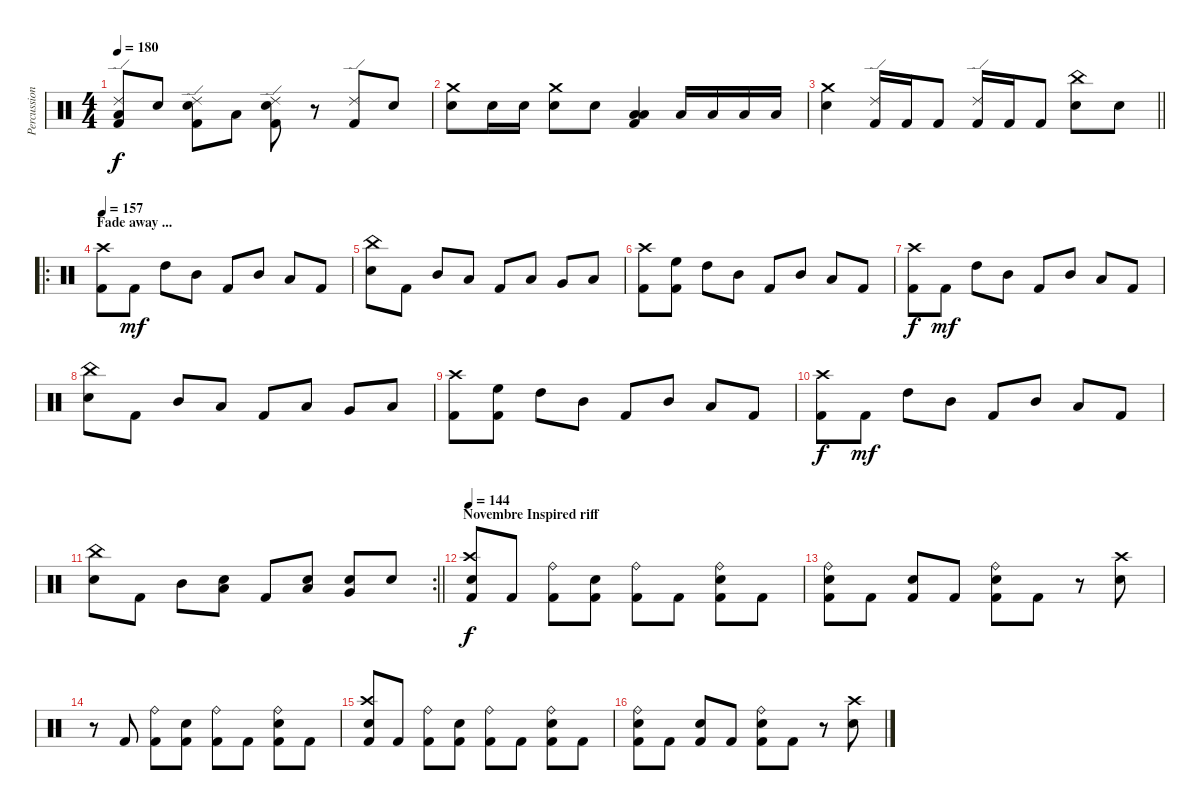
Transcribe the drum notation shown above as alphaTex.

\track ("Percussion" "Percussion") {instrument percussion}
\staff {score}
\articulation defaults
\ts (4 4)
\tempo 180
\clef neutral
\ks c
("Ride (edge) 2" "Low Floor Tom (hit)" "Kick (hit) 2").8{dy f} "Electric Snare (hit)".8 ("Ride (edge) 2" "Electric Snare (hit)" "Kick (hit) 2").8 "Low Floor Tom (hit)".8 ("Ride (edge) 2" "Electric Snare (hit)" "Kick (hit) 2").8 r.8 ("Ride (edge) 2" "Kick (hit) 2").8 "Electric Snare (hit)".8 |
("Crash medium (hit)" "Electric Snare (hit)").8 "Electric Snare (hit)".16 "Electric Snare (hit)".16 ("Crash medium (hit)" "Electric Snare (hit)").8 "Electric Snare (hit)".8 ("Low Tom (hit)" "Low Floor Tom (hit)" "Kick (hit) 2").4 "Low Tom (hit)".16 "Low Tom (hit)".16 "Low Floor Tom (hit)".16 "Low Floor Tom (hit)".16 |
\barLineRight lightlight
("Crash medium (hit)" "Electric Snare (hit)").4 ("Ride (edge) 2" "Kick (hit) 2").16 "Kick (hit) 2".16 "Kick (hit) 2".8 ("Ride (edge) 2" "Kick (hit) 2").16 "Kick (hit) 2".16 "Kick (hit) 2".8 ("China (hit)" "Electric Snare (hit)").8 "Electric Snare (hit)".8 |
\ro
\section ("" "Fade away ...")
\tempo 157
("Kick (hit) 2" "Crash high (hit)").8 "Kick (hit) 2".8{dy mf} "High Tom (hit)".8 "Mid Tom (hit)".8 "Kick (hit) 2".8 "Mid Tom (hit)".8 "Low Tom (hit)".8 "Kick (hit) 2".8 |
("China (hit)" "Electric Snare (hit)").8 "Kick (hit) 2".8 "Mid Tom (hit)".8 "Low Tom (hit)".8 "Kick (hit) 2".8 "Low Tom (hit)".8 "Very Low Tom (hit)".8 "Low Floor Tom (hit)".8 |
("Crash high (hit)" "Kick (hit) 2").8 ("Kick (hit) 2" "High Floor Tom (hit)").8 "High Tom (hit)".8 "Mid Tom (hit)".8 "Kick (hit) 2".8 "Mid Tom (hit)".8 "Low Tom (hit)".8 "Kick (hit) 2".8 |
("Kick (hit) 2" "Crash high (hit)").8{dy f} "Kick (hit) 2".8{dy mf} "High Tom (hit)".8 "Mid Tom (hit)".8 "Kick (hit) 2".8 "Mid Tom (hit)".8 "Low Tom (hit)".8 "Kick (hit) 2".8 |
("China (hit)" "Electric Snare (hit)").8 "Kick (hit) 2".8 "Mid Tom (hit)".8 "Low Tom (hit)".8 "Kick (hit) 2".8 "Low Tom (hit)".8 "Very Low Tom (hit)".8 "Low Floor Tom (hit)".8 |
("Crash high (hit)" "Kick (hit) 2").8 ("Kick (hit) 2" "High Floor Tom (hit)").8 "High Tom (hit)".8 "Mid Tom (hit)".8 "Kick (hit) 2".8 "Mid Tom (hit)".8 "Low Tom (hit)".8 "Kick (hit) 2".8 |
("Kick (hit) 2" "Crash high (hit)").8{dy f} "Kick (hit) 2".8{dy mf} "High Tom (hit)".8 "Mid Tom (hit)".8 "Kick (hit) 2".8 "Mid Tom (hit)".8 "Low Tom (hit)".8 "Kick (hit) 2".8 |
\rc 2
\barLineRight lightlight
("China (hit)" "Electric Snare (hit)").8 "Kick (hit) 2".8 "Mid Tom (hit)".8 ("Low Tom (hit)" "Electric Snare (hit)").8 "Kick (hit) 2".8 ("Low Tom (hit)" "Electric Snare (hit)").8 ("Very Low Tom (hit)" "Electric Snare (hit)").8 "Electric Snare (hit)".8 |
\section ("" "Novembre Inspired riff")
\tempo 144
("Crash high (hit)" "Snare (hit) 2" "Kick (hit) 2").8{dy f} "Kick (hit) 2".8 ("Ride (bell)" "Kick (hit) 2").8 ("Snare (hit) 2" "Kick (hit) 2").8 ("Ride (bell)" "Kick (hit) 2").8 "Kick (hit) 2".8 ("Ride (bell)" "Snare (hit) 2" "Kick (hit) 2").8 "Kick (hit) 2".8 |
("Ride (bell)" "Snare (hit) 2" "Kick (hit) 2").8 "Kick (hit) 2".8 ("Snare (hit) 2" "Kick (hit) 2").8 "Kick (hit) 2".8 ("Ride (bell)" "Snare (hit) 2" "Kick (hit) 2").8 "Kick (hit) 2".8 r.8 ("Crash high (hit)" "Snare (hit) 2").8 |
r.8 "Kick (hit) 2".8 ("Ride (bell)" "Kick (hit) 2").8 ("Snare (hit) 2" "Kick (hit) 2").8 ("Ride (bell)" "Kick (hit) 2").8 "Kick (hit) 2".8 ("Ride (bell)" "Snare (hit) 2" "Kick (hit) 2").8 "Kick (hit) 2".8 |
("Crash high (hit)" "Snare (hit) 2" "Kick (hit) 2").8 "Kick (hit) 2".8 ("Ride (bell)" "Kick (hit) 2").8 ("Snare (hit) 2" "Kick (hit) 2").8 ("Ride (bell)" "Kick (hit) 2").8 "Kick (hit) 2".8 ("Ride (bell)" "Snare (hit) 2" "Kick (hit) 2").8 "Kick (hit) 2".8 |
("Ride (bell)" "Snare (hit) 2" "Kick (hit) 2").8 "Kick (hit) 2".8 ("Snare (hit) 2" "Kick (hit) 2").8 "Kick (hit) 2".8 ("Ride (bell)" "Snare (hit) 2" "Kick (hit) 2").8 "Kick (hit) 2".8 r.8 ("Crash high (hit)" "Snare (hit) 2").8
